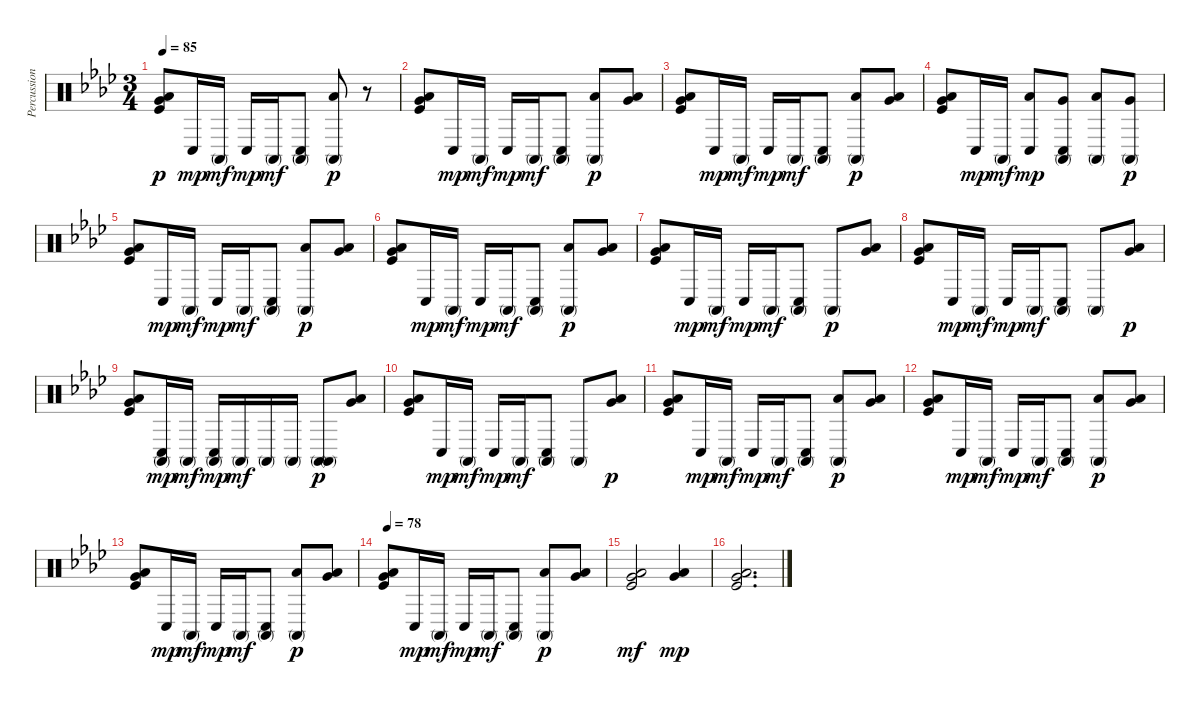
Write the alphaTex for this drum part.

\track ("Percussion" "Percussion") {instrument percussion}
\staff {score}
\articulation defaults
\ts (3 4)
\tempo 85
\clef neutral
\ks fminor
("Kick (hit)" "Low Floor Tom (hit)" "Very Low Tom (hit)").8{dy p} "Conga low (hit)".16{dy mp} "Conga high (mute)".16{dy mf} "Conga low (hit)".16{dy mp} "Conga high (mute)".16{dy mf} ("Conga low (hit)" "Conga high (mute)").8 ("Low Tom (hit)" "Conga high (mute)").8{dy p} r.8 |
("Kick (hit)" "Low Floor Tom (hit)" "Very Low Tom (hit)").8 "Conga low (hit)".16{dy mp} "Conga high (mute)".16{dy mf} "Conga low (hit)".16{dy mp} "Conga high (mute)".16{dy mf} ("Conga low (hit)" "Conga high (mute)").8 ("Low Tom (hit)" "Conga high (mute)").8{dy p} ("Low Floor Tom (hit)" "Very Low Tom (hit)").8 |
("Kick (hit)" "Low Floor Tom (hit)" "Very Low Tom (hit)").8 "Conga low (hit)".16{dy mp} "Conga high (mute)".16{dy mf} "Conga low (hit)".16{dy mp} "Conga high (mute)".16{dy mf} ("Conga low (hit)" "Conga high (mute)").8 ("Low Tom (hit)" "Conga high (mute)").8{dy p} ("Low Floor Tom (hit)" "Very Low Tom (hit)").8 |
("Kick (hit)" "Low Floor Tom (hit)" "Very Low Tom (hit)").8 "Conga low (hit)".16{dy mp} "Conga high (mute)".16{dy mf} ("Conga low (hit)" "Low Floor Tom (hit)").8{dy mp} ("Conga low (hit)" "Conga high (mute)" "Very Low Tom (hit)").8 ("Low Tom (hit)" "Conga high (mute)").8 ("Very Low Tom (hit)" "Conga high (mute)").8{dy p} |
("Kick (hit)" "Low Floor Tom (hit)" "Very Low Tom (hit)").8{volume 8} "Conga low (hit)".16{dy mp} "Conga high (mute)".16{dy mf} "Conga low (hit)".16{dy mp} "Conga high (mute)".16{dy mf} ("Conga low (hit)" "Conga high (mute)").8 ("Low Tom (hit)" "Conga high (mute)").8{dy p} ("Low Floor Tom (hit)" "Very Low Tom (hit)").8 |
("Kick (hit)" "Low Floor Tom (hit)" "Very Low Tom (hit)").8 "Conga low (hit)".16{dy mp} "Conga high (mute)".16{dy mf} "Conga low (hit)".16{dy mp} "Conga high (mute)".16{dy mf} ("Conga low (hit)" "Conga high (mute)").8 ("Low Tom (hit)" "Conga high (mute)").8{dy p} ("Low Floor Tom (hit)" "Very Low Tom (hit)").8 |
("Kick (hit)" "Low Floor Tom (hit)" "Very Low Tom (hit)").8 "Conga low (hit)".16{dy mp} "Conga high (mute)".16{dy mf} "Conga low (hit)".16{dy mp} "Conga high (mute)".16{dy mf} ("Conga low (hit)" "Conga high (mute)").8 "Conga high (mute)".8{dy p} ("Low Floor Tom (hit)" "Very Low Tom (hit)").8 |
("Kick (hit)" "Low Floor Tom (hit)" "Very Low Tom (hit)").8 "Conga low (hit)".16{dy mp} "Conga high (mute)".16{dy mf} "Conga low (hit)".16{dy mp} "Conga high (mute)".16{dy mf} ("Conga low (hit)" "Conga high (mute)").8 "Conga high (mute)".8 ("Low Floor Tom (hit)" "Very Low Tom (hit)").8{dy p} |
("Kick (hit)" "Low Floor Tom (hit)" "Very Low Tom (hit)").8 ("Conga high (mute)" "Conga low (hit)").16{dy mp} "Conga high (mute)".16{dy mf} ("Conga low (hit)" "Conga high (mute)").16{dy mp} "Conga high (mute)".16{dy mf} "Conga high (mute)".16 "Conga high (mute)".16 ("Conga high (mute)" "Conga high (mute)").8{dy p} ("Low Floor Tom (hit)" "Very Low Tom (hit)").8 |
("Kick (hit)" "Low Floor Tom (hit)" "Very Low Tom (hit)").8 "Conga low (hit)".16{dy mp} "Conga high (mute)".16{dy mf} "Conga low (hit)".16{dy mp} "Conga high (mute)".16{dy mf} ("Conga low (hit)" "Conga high (mute)").8 "Conga high (mute)".8 ("Low Floor Tom (hit)" "Very Low Tom (hit)").8{dy p} |
("Kick (hit)" "Low Floor Tom (hit)" "Very Low Tom (hit)").8 "Conga low (hit)".16{dy mp} "Conga high (mute)".16{dy mf} "Conga low (hit)".16{dy mp} "Conga high (mute)".16{dy mf} ("Conga low (hit)" "Conga high (mute)").8 ("Low Tom (hit)" "Conga high (mute)").8{dy p} ("Low Floor Tom (hit)" "Very Low Tom (hit)").8 |
("Kick (hit)" "Low Floor Tom (hit)" "Very Low Tom (hit)").8 "Conga low (hit)".16{dy mp} "Conga high (mute)".16{dy mf} "Conga low (hit)".16{dy mp} "Conga high (mute)".16{dy mf} ("Conga low (hit)" "Conga high (mute)").8 ("Low Tom (hit)" "Conga high (mute)").8{dy p} ("Low Floor Tom (hit)" "Very Low Tom (hit)").8 |
("Kick (hit)" "Low Floor Tom (hit)" "Very Low Tom (hit)").8 "Conga low (hit)".16{dy mp} "Conga high (mute)".16{dy mf} "Conga low (hit)".16{dy mp} "Conga high (mute)".16{dy mf} ("Conga low (hit)" "Conga high (mute)").8 ("Low Tom (hit)" "Conga high (mute)").8{dy p} ("Low Floor Tom (hit)" "Very Low Tom (hit)").8 |
\tempo 78
("Kick (hit)" "Low Floor Tom (hit)" "Very Low Tom (hit)").8 "Conga low (hit)".16{dy mp} "Conga high (mute)".16{dy mf} "Conga low (hit)".16{dy mp} "Conga high (mute)".16{dy mf} ("Conga low (hit)" "Conga high (mute)").8 ("Low Tom (hit)" "Conga high (mute)").8{dy p} ("Low Floor Tom (hit)" "Very Low Tom (hit)").8 |
("Kick (hit)" "Low Floor Tom (hit)" "Very Low Tom (hit)").2{dy mf} ("Low Floor Tom (hit)" "Very Low Tom (hit)").4{dy mp} |
("Kick (hit)" "Low Floor Tom (hit)" "Very Low Tom (hit)").2{d}
